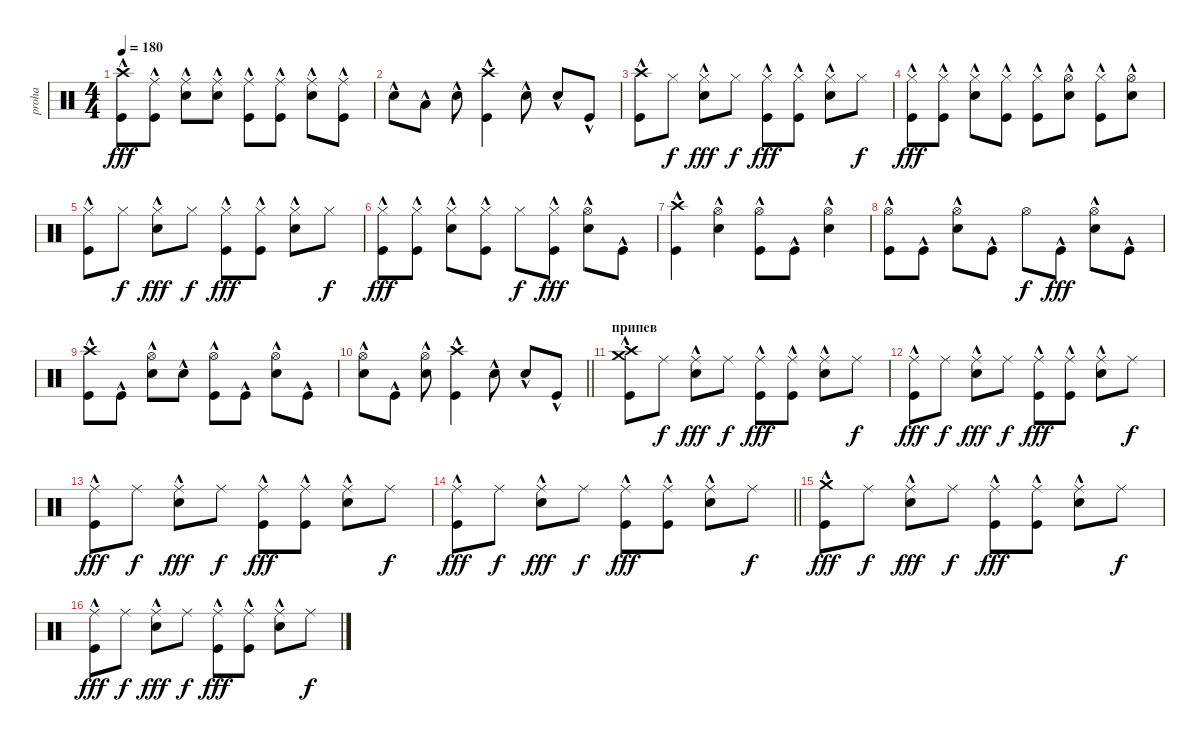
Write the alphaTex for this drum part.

\track ("proha" "proha") {instrument percussion}
\staff {score}
\articulation defaults
\ts (4 4)
\tempo 180
\clef neutral
\ks c
("Kick (hit)"{hac} "Crash high (hit)").8{dy fff} ("Kick (hit)"{hac} "Ride (middle)").8 ("Snare (hit) 2"{hac} "Ride (middle)").8 ("Snare (hit) 2"{hac} "Ride (middle)").8 ("Kick (hit)"{hac} "Ride (middle)").8 ("Kick (hit)"{hac} "Ride (middle)").8 ("Snare (hit) 2"{hac} "Ride (middle)").8 ("Kick (hit)"{hac} "Ride (middle)").8 |
"Snare (hit) 2"{hac}.8 "Low Floor Tom (hit)"{hac}.8 "Snare (hit) 2"{hac}.8 ("Kick (hit)"{hac} "Crash high (hit)").4 "Snare (hit) 2"{hac}.8 "Snare (hit) 2"{hac}.8 "Kick (hit)"{hac}.8 |
("Crash high (hit)" "Kick (hit)"{hac}).8 "Hi-Hat (closed)".8{dy f} ("Hi-Hat (closed)" "Snare (hit) 2"{hac}).8{dy fff} "Hi-Hat (closed)".8{dy f} ("Hi-Hat (closed)" "Kick (hit)"{hac}).8{dy fff} ("Hi-Hat (closed)" "Kick (hit)"{hac}).8 ("Hi-Hat (closed)" "Snare (hit) 2"{hac}).8 "Hi-Hat (closed)".8{dy f} |
("Hi-Hat (closed)" "Kick (hit)"{hac}).8{dy fff} ("Hi-Hat (closed)" "Kick (hit)"{hac}).8 ("Hi-Hat (closed)" "Snare (hit) 2"{hac}).8 ("Hi-Hat (closed)" "Kick (hit)"{hac}).8 ("Hi-Hat (closed)" "Kick (hit)"{hac}).8 ("Hi-Hat (open)" "Snare (hit) 2"{hac}).8 ("Hi-Hat (closed)" "Kick (hit)"{hac}).8 ("Hi-Hat (open)" "Snare (hit) 2"{hac}).8 |
("Hi-Hat (closed)" "Kick (hit)"{hac}).8 "Hi-Hat (closed)".8{dy f} ("Hi-Hat (closed)" "Snare (hit) 2"{hac}).8{dy fff} "Hi-Hat (closed)".8{dy f} ("Hi-Hat (closed)" "Kick (hit)"{hac}).8{dy fff} ("Hi-Hat (closed)" "Kick (hit)"{hac}).8 ("Hi-Hat (closed)" "Snare (hit) 2"{hac}).8 "Hi-Hat (closed)".8{dy f} |
("Hi-Hat (closed)" "Kick (hit)"{hac}).8{dy fff} ("Hi-Hat (closed)" "Kick (hit)"{hac}).8 ("Hi-Hat (closed)" "Snare (hit) 2"{hac}).8 ("Hi-Hat (closed)" "Kick (hit)"{hac}).8 "Hi-Hat (closed)".8{dy f} ("Hi-Hat (closed)" "Kick (hit)"{hac}).8{dy fff} ("Hi-Hat (open)" "Snare (hit) 2"{hac}).8 "Kick (hit)"{hac}.8 |
("Kick (hit)"{hac} "Crash high (hit)").4 ("Snare (hit) 2"{hac} "Hi-Hat (open)").4 ("Kick (hit)"{hac} "Hi-Hat (open)").8 "Kick (hit)"{hac}.8 ("Snare (hit) 2"{hac} "Hi-Hat (open)").4 |
("Kick (hit)"{hac} "Hi-Hat (open)").8 "Kick (hit)"{hac}.8 ("Snare (hit) 2"{hac} "Hi-Hat (open)").8 "Kick (hit)"{hac}.8 "Hi-Hat (open)".8{dy f} "Kick (hit)"{hac}.8{dy fff} ("Snare (hit) 2"{hac} "Hi-Hat (open)").8 "Kick (hit)"{hac}.8 |
("Kick (hit)"{hac} "Crash high (hit)").8 "Kick (hit)"{hac}.8 ("Snare (hit) 2"{hac} "Hi-Hat (open)").8 "Snare (hit) 2"{hac}.8 ("Kick (hit)"{hac} "Hi-Hat (open)").8 "Kick (hit)"{hac}.8 ("Snare (hit) 2"{hac} "Hi-Hat (open)").8 "Kick (hit)"{hac}.8 |
\barLineRight lightlight
("Snare (hit) 2"{hac} "Hi-Hat (open)").8 "Kick (hit)"{hac}.8 ("Snare (hit) 2"{hac} "Hi-Hat (open)").8 ("Kick (hit)"{hac} "Crash high (hit)").4 "Snare (hit) 2"{hac}.8 "Snare (hit) 2"{hac}.8 "Kick (hit)"{hac}.8 |
\section ("" "припев")
("Crash high (hit)" "Kick (hit)"{hac} "Crash medium (hit)").8 "Ride (middle)".8{dy f} ("Ride (middle)" "Snare (hit) 2"{hac}).8{dy fff} "Ride (middle)".8{dy f} ("Ride (middle)" "Kick (hit)"{hac}).8{dy fff} ("Ride (middle)" "Kick (hit)"{hac}).8 ("Ride (middle)" "Snare (hit) 2"{hac}).8 "Ride (middle)".8{dy f} |
("Ride (middle)" "Kick (hit)"{hac}).8{dy fff} "Ride (middle)".8{dy f} ("Ride (middle)" "Snare (hit) 2"{hac}).8{dy fff} "Ride (middle)".8{dy f} ("Ride (middle)" "Kick (hit)"{hac}).8{dy fff} ("Ride (middle)" "Kick (hit)"{hac}).8 ("Ride (middle)" "Snare (hit) 2"{hac}).8 "Ride (middle)".8{dy f} |
("Ride (middle)" "Kick (hit)"{hac}).8{dy fff} "Ride (middle)".8{dy f} ("Ride (middle)" "Snare (hit) 2"{hac}).8{dy fff} "Ride (middle)".8{dy f} ("Ride (middle)" "Kick (hit)"{hac}).8{dy fff} ("Ride (middle)" "Kick (hit)"{hac}).8 ("Ride (middle)" "Snare (hit) 2"{hac}).8 "Ride (middle)".8{dy f} |
\barLineRight lightlight
("Ride (middle)" "Kick (hit)"{hac}).8{dy fff} "Ride (middle)".8{dy f} ("Ride (middle)" "Snare (hit) 2"{hac}).8{dy fff} "Ride (middle)".8{dy f} ("Ride (middle)" "Kick (hit)"{hac}).8{dy fff} ("Ride (middle)" "Kick (hit)"{hac}).8 ("Ride (middle)" "Snare (hit) 2"{hac}).8 "Ride (middle)".8{dy f} |
("Crash medium (hit)" "Kick (hit)"{hac}).8{dy fff} "Ride (middle)".8{dy f} ("Ride (middle)" "Snare (hit) 2"{hac}).8{dy fff} "Ride (middle)".8{dy f} ("Ride (middle)" "Kick (hit)"{hac}).8{dy fff} ("Ride (middle)" "Kick (hit)"{hac}).8 ("Ride (middle)" "Snare (hit) 2"{hac}).8 "Ride (middle)".8{dy f} |
("Ride (middle)" "Kick (hit)"{hac}).8{dy fff} "Ride (middle)".8{dy f} ("Ride (middle)" "Snare (hit) 2"{hac}).8{dy fff} "Ride (middle)".8{dy f} ("Ride (middle)" "Kick (hit)"{hac}).8{dy fff} ("Ride (middle)" "Kick (hit)"{hac}).8 ("Ride (middle)" "Snare (hit) 2"{hac}).8 "Ride (middle)".8{dy f}
